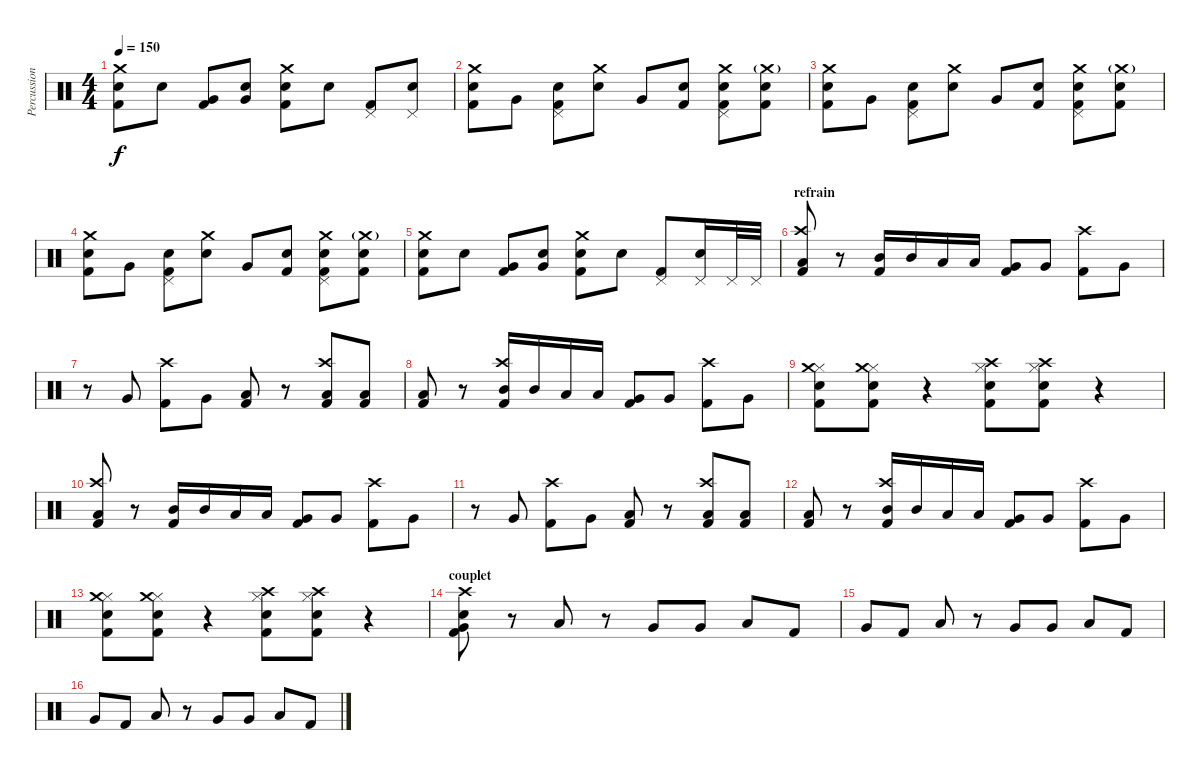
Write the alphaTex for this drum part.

\track ("Percussions" "Percussion") {instrument percussion}
\staff {score}
\articulation defaults
\ts (4 4)
\tempo 150
\clef neutral
\ks c
("Crash medium (hit)" "Electric Snare (hit)" "Kick (hit) 2").8{dy f} "Electric Snare (hit)".8 ("Very Low Tom (hit)" "Kick (hit) 2").8 ("Very Low Tom (hit)" "Electric Snare (hit)").8 ("Crash medium (hit)" "Electric Snare (hit)" "Kick (hit) 2").8 "Electric Snare (hit)".8 ("Pedal Hi-Hat (hit)" "Kick (hit) 2").8 ("Pedal Hi-Hat (hit)" "Electric Snare (hit)").8 |
("Electric Snare (hit)" "Crash medium (hit)" "Kick (hit) 2").8 "Very Low Tom (hit)".8 ("Electric Snare (hit)" "Pedal Hi-Hat (hit)" "Kick (hit) 2").8 ("Electric Snare (hit)" "Crash medium (hit)").8 "Very Low Tom (hit)".8 ("Electric Snare (hit)" "Kick (hit) 2").8 ("Electric Snare (hit)" "Pedal Hi-Hat (hit)" "Crash medium (hit)" "Kick (hit) 2").8 ("Electric Snare (hit)" "Crash medium (hit)"{g} "Kick (hit) 2").8 |
("Electric Snare (hit)" "Crash medium (hit)" "Kick (hit) 2").8 "Very Low Tom (hit)".8 ("Electric Snare (hit)" "Pedal Hi-Hat (hit)" "Kick (hit) 2").8 ("Electric Snare (hit)" "Crash medium (hit)").8 "Very Low Tom (hit)".8 ("Electric Snare (hit)" "Kick (hit) 2").8 ("Electric Snare (hit)" "Pedal Hi-Hat (hit)" "Crash medium (hit)" "Kick (hit) 2").8 ("Electric Snare (hit)" "Crash medium (hit)"{g} "Kick (hit) 2").8 |
("Electric Snare (hit)" "Crash medium (hit)" "Kick (hit) 2").8 "Very Low Tom (hit)".8 ("Electric Snare (hit)" "Pedal Hi-Hat (hit)" "Kick (hit) 2").8 ("Electric Snare (hit)" "Crash medium (hit)").8 "Very Low Tom (hit)".8 ("Electric Snare (hit)" "Kick (hit) 2").8 ("Electric Snare (hit)" "Pedal Hi-Hat (hit)" "Crash medium (hit)" "Kick (hit) 2").8 ("Electric Snare (hit)" "Crash medium (hit)"{g} "Kick (hit) 2").8 |
("Electric Snare (hit)" "Crash medium (hit)" "Kick (hit) 2").8 "Electric Snare (hit)".8 ("Very Low Tom (hit)" "Kick (hit) 2").8 ("Very Low Tom (hit)" "Electric Snare (hit)").8 ("Crash medium (hit)" "Electric Snare (hit)" "Kick (hit) 2").8 "Electric Snare (hit)".8 ("Pedal Hi-Hat (hit)" "Kick (hit) 2").8 ("Pedal Hi-Hat (hit)" "Electric Snare (hit)").16 "Pedal Hi-Hat (hit)".32 "Pedal Hi-Hat (hit)".32 |
\section ("" "refrain")
("Crash high (hit)" "Low Floor Tom (hit)" "Kick (hit) 2").8 r.8 ("Mid Tom (hit)" "Kick (hit) 2").16 "Mid Tom (hit)".16 "Low Tom (hit)".16 "Low Tom (hit)".16 ("Very Low Tom (hit)" "Kick (hit) 2").8 "Very Low Tom (hit)".8 ("Crash high (hit)" "Kick (hit) 2").8 "Very Low Tom (hit)".8 |
r.8 "Very Low Tom (hit)".8 ("Crash high (hit)" "Kick (hit) 2").8 "Very Low Tom (hit)".8 ("Low Floor Tom (hit)" "Kick (hit) 2").8 r.8 ("Crash high (hit)" "Low Floor Tom (hit)" "Kick (hit) 2").8 ("Low Floor Tom (hit)" "Kick (hit) 2").8 |
("Low Floor Tom (hit)" "Kick (hit) 2").8 r.8 ("Crash high (hit)" "Mid Tom (hit)" "Kick (hit) 2").16 "Mid Tom (hit)".16 "Low Tom (hit)".16 "Low Tom (hit)".16 ("Very Low Tom (hit)" "Kick (hit) 2").8 "Very Low Tom (hit)".8 ("Crash high (hit)" "Kick (hit) 2").8 "Very Low Tom (hit)".8 |
("Hi-Hat (closed)" "Crash medium (hit)" "Electric Snare (hit)" "Kick (hit) 2").8 ("Hi-Hat (closed)" "Crash medium (hit)" "Electric Snare (hit)" "Kick (hit) 2").8 r.4 ("Hi-Hat (closed)" "Crash high (hit)" "Electric Snare (hit)" "Kick (hit) 2").8 ("Hi-Hat (closed)" "Crash high (hit)" "Electric Snare (hit)" "Kick (hit) 2").8 r.4 |
("Crash high (hit)" "Low Floor Tom (hit)" "Kick (hit) 2").8 r.8 ("Mid Tom (hit)" "Kick (hit) 2").16 "Mid Tom (hit)".16 "Low Tom (hit)".16 "Low Tom (hit)".16 ("Very Low Tom (hit)" "Kick (hit) 2").8 "Very Low Tom (hit)".8 ("Crash high (hit)" "Kick (hit) 2").8 "Very Low Tom (hit)".8 |
r.8 "Very Low Tom (hit)".8 ("Crash high (hit)" "Kick (hit) 2").8 "Very Low Tom (hit)".8 ("Low Floor Tom (hit)" "Kick (hit) 2").8 r.8 ("Crash high (hit)" "Low Floor Tom (hit)" "Kick (hit) 2").8 ("Low Floor Tom (hit)" "Kick (hit) 2").8 |
("Low Floor Tom (hit)" "Kick (hit) 2").8 r.8 ("Crash high (hit)" "Mid Tom (hit)" "Kick (hit) 2").16 "Mid Tom (hit)".16 "Low Tom (hit)".16 "Low Tom (hit)".16 ("Very Low Tom (hit)" "Kick (hit) 2").8 "Very Low Tom (hit)".8 ("Crash high (hit)" "Kick (hit) 2").8 "Very Low Tom (hit)".8 |
("Hi-Hat (closed)" "Crash medium (hit)" "Electric Snare (hit)" "Kick (hit) 2").8 ("Hi-Hat (closed)" "Crash medium (hit)" "Electric Snare (hit)" "Kick (hit) 2").8 r.4 ("Hi-Hat (closed)" "Crash high (hit)" "Electric Snare (hit)" "Kick (hit) 2").8 ("Hi-Hat (closed)" "Crash high (hit)" "Electric Snare (hit)" "Kick (hit) 2").8 r.4 |
\section ("" "couplet")
("Crash high (hit)" "Very Low Tom (hit)" "Electric Snare (hit)" "Kick (hit) 2").8 r.8 "Low Tom (hit)".8 r.8 "Very Low Tom (hit)".8 "Very Low Tom (hit)".8 "Low Tom (hit)".8 "Kick (hit) 2".8 |
"Very Low Tom (hit)".8 "Kick (hit) 2".8 "Low Tom (hit)".8 r.8 "Very Low Tom (hit)".8 "Very Low Tom (hit)".8 "Low Tom (hit)".8 "Kick (hit) 2".8 |
"Very Low Tom (hit)".8 "Kick (hit) 2".8 "Low Tom (hit)".8 r.8 "Very Low Tom (hit)".8 "Very Low Tom (hit)".8 "Low Tom (hit)".8 "Kick (hit) 2".8
